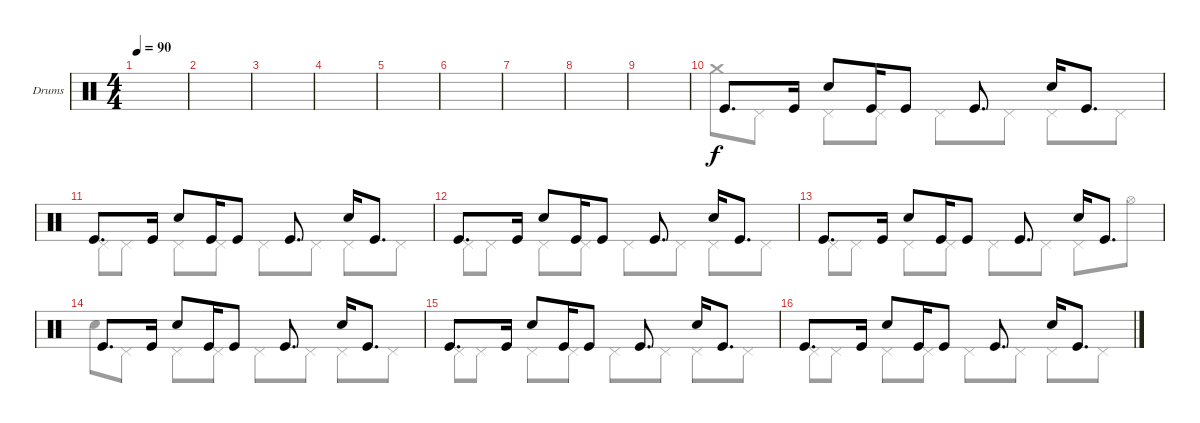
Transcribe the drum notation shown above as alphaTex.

\defaultSystemsLayout 4
\bracketExtendMode groupsimilarinstruments
\firstSystemTrackNameOrientation horizontal
\otherSystemsTrackNameOrientation horizontal
\track ("Drumkit" "Drums") {instrument percussion}
\staff {score}
\articulation defaults
\voice
\ts (4 4)
\tempo 90
\clef neutral
\scale
0.472222
\ks c
|
\scale
0.263889 |
\scale
0.263889 |
\scale
0.333333 |
\scale
0.333333 |
\scale
0.333333 |
\scale
0.333333 |
\scale
0.333333 |
\scale
0.333333 |
\scale
0.333333 "Kick (hit)".8{d} "Kick (hit)".16 "Snare (hit) 2".8 "Kick (hit)".16 "Kick (hit)".8 "Kick (hit)".8{d} "Snare (hit) 2".16 "Kick (hit)".8{d} |
\scale
0.333333 "Kick (hit)".8{d} "Kick (hit)".16 "Snare (hit) 2".8 "Kick (hit)".16 "Kick (hit)".8 "Kick (hit)".8{d} "Snare (hit) 2".16 "Kick (hit)".8{d} |
\scale
0.333333 "Kick (hit)".8{d} "Kick (hit)".16 "Snare (hit) 2".8 "Kick (hit)".16 "Kick (hit)".8 "Kick (hit)".8{d} "Snare (hit) 2".16 "Kick (hit)".8{d} |
\scale
0.333333 "Kick (hit)".8{d} "Kick (hit)".16 "Snare (hit) 2".8 "Kick (hit)".16 "Kick (hit)".8 "Kick (hit)".8{d} "Snare (hit) 2".16 "Kick (hit)".8{d} |
\scale
0.333333 "Kick (hit)".8{d} "Kick (hit)".16 "Snare (hit) 2".8 "Kick (hit)".16 "Kick (hit)".8 "Kick (hit)".8{d} "Snare (hit) 2".16 "Kick (hit)".8{d} |
\scale
0.333333 "Kick (hit)".8{d} "Kick (hit)".16 "Snare (hit) 2".8 "Kick (hit)".16 "Kick (hit)".8 "Kick (hit)".8{d} "Snare (hit) 2".16 "Kick (hit)".8{d} |
"Kick (hit)".8{d} "Kick (hit)".16 "Snare (hit) 2".8 "Kick (hit)".16 "Kick (hit)".8 "Kick (hit)".8{d} "Snare (hit) 2".16 "Kick (hit)".8{d}
\voice
\clef neutral
\ottava regular
\simile none
\scale
0.472222
\ks c
|
\scale
0.263889 |
\scale
0.263889 |
\scale
0.333333 |
\scale
0.333333 |
\scale
0.333333 |
\scale
0.333333 |
\scale
0.333333 |
\scale
0.333333 |
\scale
0.333333 "Crash medium (hit)".8 "Pedal Hi-Hat (hit)".8 "Pedal Hi-Hat (hit)".8 "Pedal Hi-Hat (hit)".8 "Pedal Hi-Hat (hit)".8 "Pedal Hi-Hat (hit)".8 "Pedal Hi-Hat (hit)".8 "Pedal Hi-Hat (hit)".8 |
\scale
0.333333 "Pedal Hi-Hat (hit)".8 "Pedal Hi-Hat (hit)".8 "Pedal Hi-Hat (hit)".8 "Pedal Hi-Hat (hit)".8 "Pedal Hi-Hat (hit)".8 "Pedal Hi-Hat (hit)".8 "Pedal Hi-Hat (hit)".8 "Pedal Hi-Hat (hit)".8 |
\scale
0.333333 "Pedal Hi-Hat (hit)".8 "Pedal Hi-Hat (hit)".8 "Pedal Hi-Hat (hit)".8 "Pedal Hi-Hat (hit)".8 "Pedal Hi-Hat (hit)".8 "Pedal Hi-Hat (hit)".8 "Pedal Hi-Hat (hit)".8 "Pedal Hi-Hat (hit)".8 |
\scale
0.333333 "Pedal Hi-Hat (hit)".8 "Pedal Hi-Hat (hit)".8 "Pedal Hi-Hat (hit)".8 "Pedal Hi-Hat (hit)".8 "Pedal Hi-Hat (hit)".8 "Pedal Hi-Hat (hit)".8 "Pedal Hi-Hat (hit)".8 "Hi-Hat (open)".8 |
\scale
0.333333 "Snare (hit) 2".8 "Pedal Hi-Hat (hit)".8 "Pedal Hi-Hat (hit)".8 "Pedal Hi-Hat (hit)".8 "Pedal Hi-Hat (hit)".8 "Pedal Hi-Hat (hit)".8 "Pedal Hi-Hat (hit)".8 "Pedal Hi-Hat (hit)".8 |
\scale
0.333333 "Pedal Hi-Hat (hit)".8 "Pedal Hi-Hat (hit)".8 "Pedal Hi-Hat (hit)".8 "Pedal Hi-Hat (hit)".8 "Pedal Hi-Hat (hit)".8 "Pedal Hi-Hat (hit)".8 "Pedal Hi-Hat (hit)".8 "Pedal Hi-Hat (hit)".8 |
"Pedal Hi-Hat (hit)".8 "Pedal Hi-Hat (hit)".8 "Pedal Hi-Hat (hit)".8 "Pedal Hi-Hat (hit)".8 "Pedal Hi-Hat (hit)".8 "Pedal Hi-Hat (hit)".8 "Pedal Hi-Hat (hit)".8 "Pedal Hi-Hat (hit)".8
